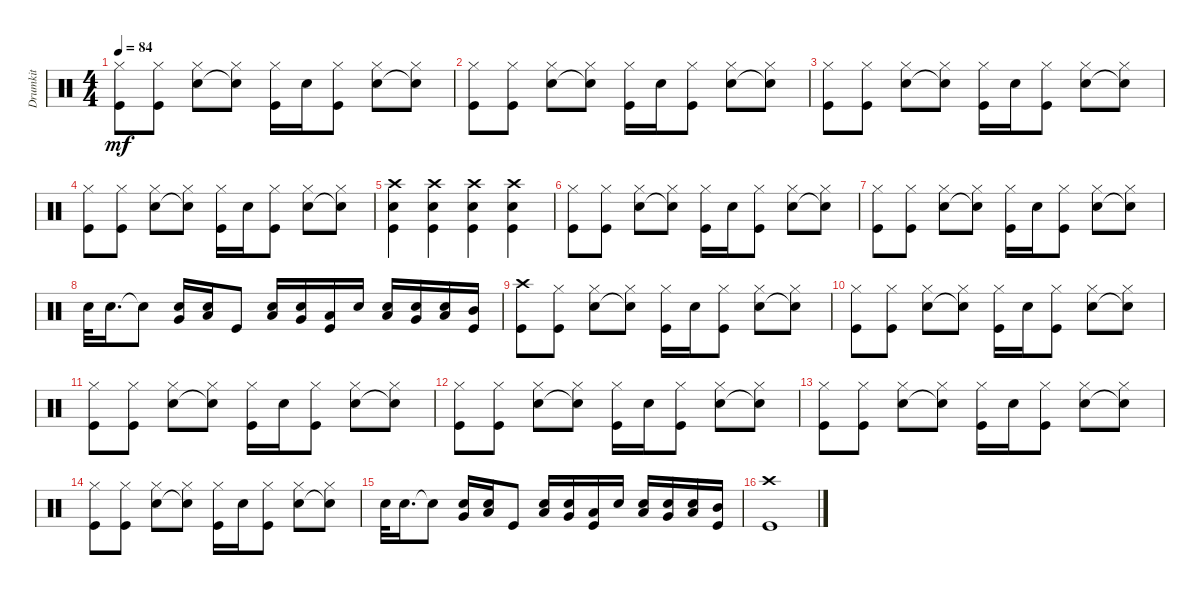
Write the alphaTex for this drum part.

\track ("Drumkit" "Drumkit") {instrument percussion}
\staff {score}
\articulation defaults
\ts (4 4)
\tempo 84
\clef neutral
\ks c
("Kick (hit)" "Hi-Hat (closed)").8{dy mf} ("Kick (hit)" "Hi-Hat (closed)").8 ("Snare (hit) 2" "Hi-Hat (closed)").8 ("Snare (hit) 2"{t} "Hi-Hat (closed)").8 ("Kick (hit)" "Hi-Hat (closed)").16 "Snare (hit) 2".16 ("Kick (hit)" "Hi-Hat (closed)").8 ("Snare (hit) 2" "Hi-Hat (closed)").8 ("Snare (hit) 2"{t} "Hi-Hat (closed)").8 |
("Kick (hit)" "Hi-Hat (closed)").8 ("Kick (hit)" "Hi-Hat (closed)").8 ("Snare (hit) 2" "Hi-Hat (closed)").8 ("Snare (hit) 2"{t} "Hi-Hat (closed)").8 ("Kick (hit)" "Hi-Hat (closed)").16 "Snare (hit) 2".16 ("Kick (hit)" "Hi-Hat (closed)").8 ("Snare (hit) 2" "Hi-Hat (closed)").8 ("Snare (hit) 2"{t} "Hi-Hat (closed)").8 |
("Kick (hit)" "Hi-Hat (closed)").8 ("Kick (hit)" "Hi-Hat (closed)").8 ("Snare (hit) 2" "Hi-Hat (closed)").8 ("Snare (hit) 2"{t} "Hi-Hat (closed)").8 ("Kick (hit)" "Hi-Hat (closed)").16 "Snare (hit) 2".16 ("Kick (hit)" "Hi-Hat (closed)").8 ("Snare (hit) 2" "Hi-Hat (closed)").8 ("Snare (hit) 2"{t} "Hi-Hat (closed)").8 |
("Kick (hit)" "Hi-Hat (closed)").8 ("Kick (hit)" "Hi-Hat (closed)").8 ("Snare (hit) 2" "Hi-Hat (closed)").8 ("Snare (hit) 2"{t} "Hi-Hat (closed)").8 ("Kick (hit)" "Hi-Hat (closed)").16 "Snare (hit) 2".16 ("Kick (hit)" "Hi-Hat (closed)").8 ("Snare (hit) 2" "Hi-Hat (closed)").8 ("Snare (hit) 2"{t} "Hi-Hat (closed)").8 |
("Kick (hit)" "Snare (hit) 2" "Crash high (hit)").4 ("Kick (hit)" "Snare (hit) 2" "Crash high (hit)").4 ("Kick (hit)" "Snare (hit) 2" "Crash high (hit)").4 ("Kick (hit)" "Snare (hit) 2" "Crash high (hit)").4 |
("Kick (hit)" "Hi-Hat (closed)").8 ("Kick (hit)" "Hi-Hat (closed)").8 ("Snare (hit) 2" "Hi-Hat (closed)").8 ("Snare (hit) 2"{t} "Hi-Hat (closed)").8 ("Kick (hit)" "Hi-Hat (closed)").16 "Snare (hit) 2".16 ("Kick (hit)" "Hi-Hat (closed)").8 ("Snare (hit) 2" "Hi-Hat (closed)").8 ("Snare (hit) 2"{t} "Hi-Hat (closed)").8 |
("Kick (hit)" "Hi-Hat (closed)").8 ("Kick (hit)" "Hi-Hat (closed)").8 ("Snare (hit) 2" "Hi-Hat (closed)").8 ("Snare (hit) 2"{t} "Hi-Hat (closed)").8 ("Kick (hit)" "Hi-Hat (closed)").16 "Snare (hit) 2".16 ("Kick (hit)" "Hi-Hat (closed)").8 ("Snare (hit) 2" "Hi-Hat (closed)").8 ("Snare (hit) 2"{t} "Hi-Hat (closed)").8 |
"Snare (hit) 2".32 "Snare (hit) 2".16{d} "Snare (hit) 2"{t}.8 ("Snare (hit) 2" "Very Low Tom (hit)").16 ("Snare (hit) 2" "Low Tom (hit)").16 "Kick (hit)".8 ("Snare (hit) 2" "Low Floor Tom (hit)").16 ("Snare (hit) 2" "Very Low Tom (hit)").16 ("Kick (hit)" "Low Tom (hit)").16 "Snare (hit) 2".16 ("Snare (hit) 2" "Low Floor Tom (hit)").16 ("Snare (hit) 2" "Very Low Tom (hit)").16 ("Snare (hit) 2" "Low Tom (hit)").16 ("Kick (hit)" "Mid Tom (hit)").16 |
("Kick (hit)" "Crash high (hit)").8 ("Kick (hit)" "Hi-Hat (closed)").8 ("Snare (hit) 2" "Hi-Hat (closed)").8 ("Snare (hit) 2"{t} "Hi-Hat (closed)").8 ("Kick (hit)" "Hi-Hat (closed)").16 "Snare (hit) 2".16 ("Kick (hit)" "Hi-Hat (closed)").8 ("Snare (hit) 2" "Hi-Hat (closed)").8 ("Snare (hit) 2"{t} "Hi-Hat (closed)").8 |
("Kick (hit)" "Hi-Hat (closed)").8 ("Kick (hit)" "Hi-Hat (closed)").8 ("Snare (hit) 2" "Hi-Hat (closed)").8 ("Snare (hit) 2"{t} "Hi-Hat (closed)").8 ("Kick (hit)" "Hi-Hat (closed)").16 "Snare (hit) 2".16 ("Kick (hit)" "Hi-Hat (closed)").8 ("Snare (hit) 2" "Hi-Hat (closed)").8 ("Snare (hit) 2"{t} "Hi-Hat (closed)").8 |
("Kick (hit)" "Hi-Hat (closed)").8 ("Kick (hit)" "Hi-Hat (closed)").8 ("Snare (hit) 2" "Hi-Hat (closed)").8 ("Snare (hit) 2"{t} "Hi-Hat (closed)").8 ("Kick (hit)" "Hi-Hat (closed)").16 "Snare (hit) 2".16 ("Kick (hit)" "Hi-Hat (closed)").8 ("Snare (hit) 2" "Hi-Hat (closed)").8 ("Snare (hit) 2"{t} "Hi-Hat (closed)").8 |
("Kick (hit)" "Hi-Hat (closed)").8 ("Kick (hit)" "Hi-Hat (closed)").8 ("Snare (hit) 2" "Hi-Hat (closed)").8 ("Snare (hit) 2"{t} "Hi-Hat (closed)").8 ("Kick (hit)" "Hi-Hat (closed)").16 "Snare (hit) 2".16 ("Kick (hit)" "Hi-Hat (closed)").8 ("Snare (hit) 2" "Hi-Hat (closed)").8 ("Snare (hit) 2"{t} "Hi-Hat (closed)").8 |
("Kick (hit)" "Hi-Hat (closed)").8 ("Kick (hit)" "Hi-Hat (closed)").8 ("Snare (hit) 2" "Hi-Hat (closed)").8 ("Snare (hit) 2"{t} "Hi-Hat (closed)").8 ("Kick (hit)" "Hi-Hat (closed)").16 "Snare (hit) 2".16 ("Kick (hit)" "Hi-Hat (closed)").8 ("Snare (hit) 2" "Hi-Hat (closed)").8 ("Snare (hit) 2"{t} "Hi-Hat (closed)").8 |
("Kick (hit)" "Hi-Hat (closed)").8 ("Kick (hit)" "Hi-Hat (closed)").8 ("Snare (hit) 2" "Hi-Hat (closed)").8 ("Snare (hit) 2"{t} "Hi-Hat (closed)").8 ("Kick (hit)" "Hi-Hat (closed)").16 "Snare (hit) 2".16 ("Kick (hit)" "Hi-Hat (closed)").8 ("Snare (hit) 2" "Hi-Hat (closed)").8 ("Snare (hit) 2"{t} "Hi-Hat (closed)").8 |
"Snare (hit) 2".32 "Snare (hit) 2".16{d} "Snare (hit) 2"{t}.8 ("Snare (hit) 2" "Very Low Tom (hit)").16 ("Snare (hit) 2" "Low Tom (hit)").16 "Kick (hit)".8 ("Snare (hit) 2" "Low Floor Tom (hit)").16 ("Snare (hit) 2" "Very Low Tom (hit)").16 ("Kick (hit)" "Low Tom (hit)").16 "Snare (hit) 2".16 ("Snare (hit) 2" "Low Floor Tom (hit)").16 ("Snare (hit) 2" "Very Low Tom (hit)").16 ("Snare (hit) 2" "Low Tom (hit)").16 ("Kick (hit)" "Mid Tom (hit)").16 |
("Kick (hit)" "Crash high (hit)").1
